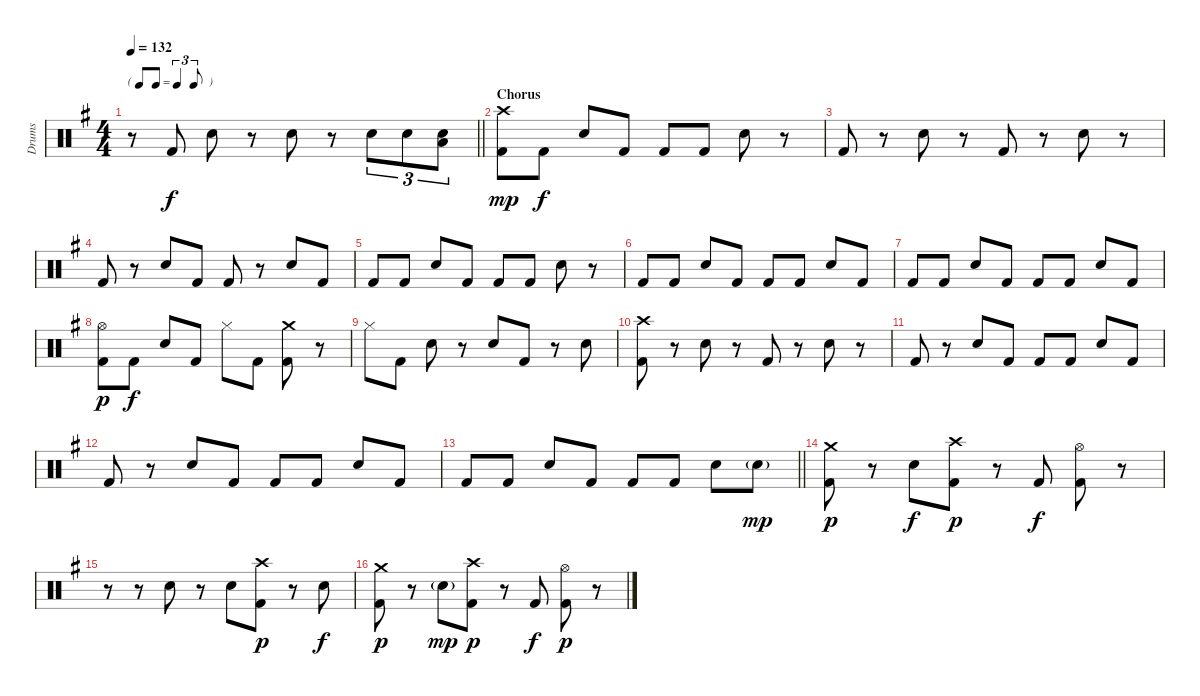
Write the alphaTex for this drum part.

\track ("Drums" "Drums") {instrument percussion}
\staff {score}
\articulation defaults
\ts (4 4)
\tf triplet8th
\tempo 132
\clef neutral
\barLineRight lightlight
\ks g
r.8{dy p} "Kick (hit) 2".8{dy f} "Electric Snare (hit)".8 r.8 "Electric Snare (hit)".8 r.8 "Electric Snare (hit)".8{tu (3 2)} "Electric Snare (hit)".8{tu (3 2)} ("Electric Snare (hit)" "Low Tom (hit)").8{tu (3 2)} |
\section ("" "Chorus")
("Crash high (hit)" "Kick (hit) 2").8{dy mp} "Kick (hit) 2".8{dy f} "Electric Snare (hit)".8 "Kick (hit) 2".8 "Kick (hit) 2".8 "Kick (hit) 2".8 "Electric Snare (hit)".8 r.8 |
"Kick (hit) 2".8 r.8 "Electric Snare (hit)".8 r.8 "Kick (hit) 2".8 r.8 "Electric Snare (hit)".8 r.8 |
"Kick (hit) 2".8 r.8 "Electric Snare (hit)".8 "Kick (hit) 2".8 "Kick (hit) 2".8 r.8 "Electric Snare (hit)".8 "Kick (hit) 2".8 |
"Kick (hit) 2".8 "Kick (hit) 2".8 "Electric Snare (hit)".8 "Kick (hit) 2".8 "Kick (hit) 2".8 "Kick (hit) 2".8 "Electric Snare (hit)".8 r.8 |
"Kick (hit) 2".8 "Kick (hit) 2".8 "Electric Snare (hit)".8 "Kick (hit) 2".8 "Kick (hit) 2".8 "Kick (hit) 2".8 "Electric Snare (hit)".8 "Kick (hit) 2".8 |
"Kick (hit) 2".8 "Kick (hit) 2".8 "Electric Snare (hit)".8 "Kick (hit) 2".8 "Kick (hit) 2".8 "Kick (hit) 2".8 "Electric Snare (hit)".8 "Kick (hit) 2".8 |
("Hi-Hat (open)" "Kick (hit) 2").8{dy p} "Kick (hit) 2".8{dy f} "Electric Snare (hit)".8 "Kick (hit) 2".8 "Hi-Hat (closed)".8 "Kick (hit) 2".8 ("Crash medium (hit)" "Kick (hit) 2").8 r.8 |
"Hi-Hat (closed)".8 "Kick (hit) 2".8 "Electric Snare (hit)".8 r.8 "Electric Snare (hit)".8 "Kick (hit) 2".8 r.8 "Electric Snare (hit)".8 |
("Crash high (hit)" "Kick (hit) 2").8 r.8 "Electric Snare (hit)".8 r.8 "Kick (hit) 2".8 r.8 "Electric Snare (hit)".8 r.8 |
"Kick (hit) 2".8 r.8 "Electric Snare (hit)".8 "Kick (hit) 2".8 "Kick (hit) 2".8 "Kick (hit) 2".8 "Electric Snare (hit)".8 "Kick (hit) 2".8 |
"Kick (hit) 2".8 r.8 "Electric Snare (hit)".8 "Kick (hit) 2".8 "Kick (hit) 2".8 "Kick (hit) 2".8 "Electric Snare (hit)".8 "Kick (hit) 2".8 |
\barLineRight lightlight "Kick (hit) 2".8 "Kick (hit) 2".8 "Electric Snare (hit)".8 "Kick (hit) 2".8 "Kick (hit) 2".8 "Kick (hit) 2".8 "Electric Snare (hit)".8 "Electric Snare (hit)"{g}.8{dy mp}
|
("Crash medium (hit)" "Kick (hit) 2").8{dy p} r.8 "Electric Snare (hit)".8{dy f} ("Crash high (hit)" "Kick (hit) 2").8{dy p} r.8 "Kick (hit) 2".8{dy f} ("Hi-Hat (open)" "Kick (hit) 2").8 r.8 |
r.8 r.8 "Electric Snare (hit)".8 r.8 "Electric Snare (hit)".8 ("Crash high (hit)" "Kick (hit) 2").8{dy p} r.8 "Electric Snare (hit)".8{dy f} |
("Crash medium (hit)" "Kick (hit) 2").8{dy p} r.8 "Electric Snare (hit)"{g}.8{dy mp} ("Crash high (hit)" "Kick (hit) 2").8{dy p} r.8 "Kick (hit) 2".8{dy f} ("Hi-Hat (open)" "Kick (hit) 2").8{dy p} r.8
